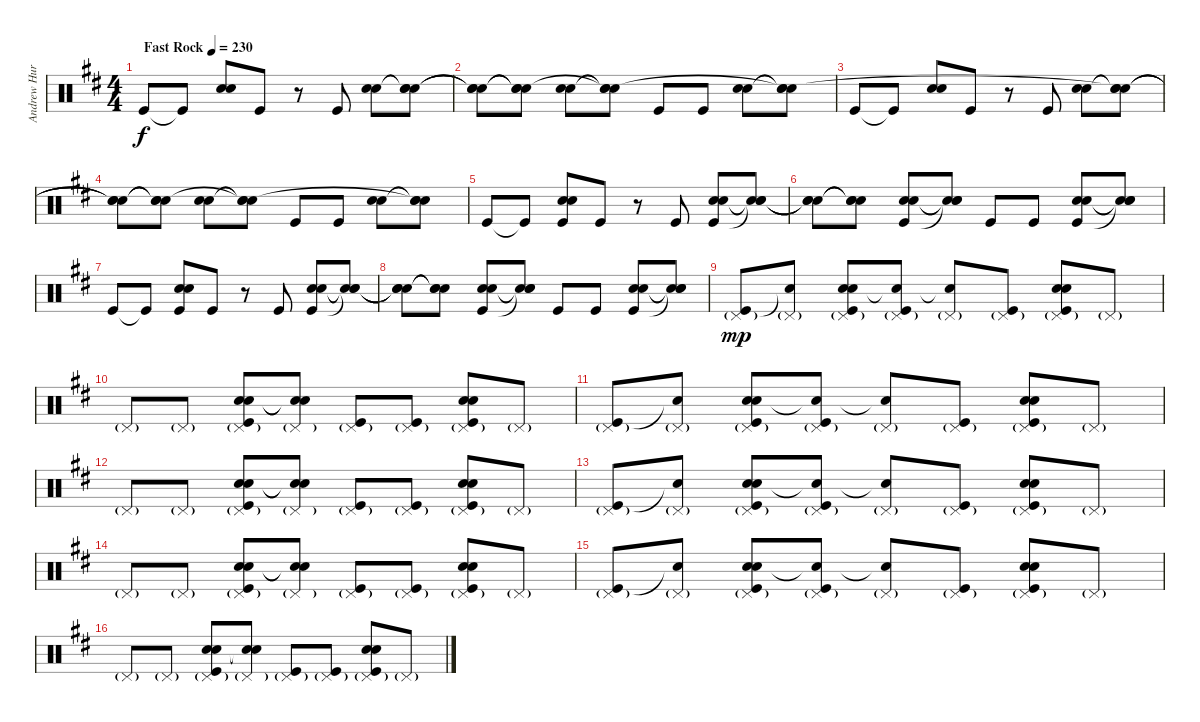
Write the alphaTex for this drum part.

\track ("Andrew Hurley" "Andrew Hur") {instrument percussion}
\staff {score}
\articulation defaults
\ts (4 4)
\tempo (230 "Fast Rock")
\clef neutral
\ks d "Kick (hit)".8{dy f} "Kick (hit)"{t}.8
("Snare (hit) 2" "Electric Snare (hit)").8 "Kick (hit)".8 r.8 "Kick (hit)".8 ("Electric Snare (hit)" "Snare (hit) 2").8 ("Snare (hit)"{t} "Snare (hit)"{t} "Snare (hit)").8 |
("Snare (hit)"{t} "Snare (hit)"{t} "Snare (hit)"{t}).8 ("Snare (hit)"{t} "Snare (hit)"{t} "Snare (hit)"{t}).8 ("Electric Snare (hit)" "Snare (hit) 2").8 ("Snare (hit)"{t} "Snare (hit)"{t} "Snare (hit)"{t}).8 "Kick (hit)".8 "Kick (hit)".8 ("Electric Snare (hit)" "Snare (hit) 2").8 ("Snare (hit)"{t} "Snare (hit)"{t} "Snare (hit)"{t}).8 |
"Kick (hit)".8 "Kick (hit)"{t}.8 ("Snare (hit) 2" "Electric Snare (hit)").8 "Kick (hit)".8 r.8 "Kick (hit)".8 ("Electric Snare (hit)" "Snare (hit) 2").8 ("Snare (hit)"{t} "Snare (hit)"{t} "Snare (hit)"{t}).8 |
("Snare (hit)"{t} "Snare (hit)"{t} "Snare (hit)"{t}).8 ("Snare (hit)"{t} "Snare (hit)"{t} "Snare (hit)"{t}).8 ("Electric Snare (hit)" "Snare (hit) 2").8 ("Snare (hit)"{t} "Snare (hit)"{t} "Snare (hit)"{t}).8 "Kick (hit)".8 "Kick (hit)".8 ("Electric Snare (hit)" "Snare (hit) 2").8 ("Snare (hit)"{t} "Snare (hit)"{t} "Snare (hit)"{t}).8 |
"Kick (hit)".8 "Kick (hit)"{t}.8 ("Kick (hit)" "Snare (hit) 2" "Electric Snare (hit)").8 "Kick (hit)".8 r.8 "Kick (hit)".8 ("Electric Snare (hit)" "Snare (hit) 2" "Kick (hit)").8 ("Snare (hit)"{t} "Snare (hit)"{t} "Snare (hit)"{t}).8 |
("Snare (hit)"{t} "Snare (hit)"{t} "Snare (hit)"{t}).8 ("Snare (hit)"{t} "Snare (hit)"{t} "Snare (hit)"{t}).8 ("Electric Snare (hit)" "Snare (hit) 2" "Kick (hit)").8 ("Snare (hit)"{t} "Snare (hit)"{t} "Snare (hit)"{t}).8 "Kick (hit)".8 "Kick (hit)".8 ("Electric Snare (hit)" "Snare (hit) 2" "Kick (hit)").8 ("Snare (hit)"{t} "Snare (hit)"{t} "Snare (hit)"{t}).8 |
"Kick (hit)".8 "Kick (hit)"{t}.8 ("Kick (hit)" "Snare (hit) 2" "Electric Snare (hit)").8 "Kick (hit)".8 r.8 "Kick (hit)".8 ("Electric Snare (hit)" "Snare (hit) 2" "Kick (hit)").8 ("Snare (hit)"{t} "Snare (hit)"{t} "Snare (hit)"{t}).8 |
("Snare (hit)"{t} "Snare (hit)"{t} "Snare (hit)"{t}).8 ("Snare (hit)"{t} "Snare (hit)"{t} "Snare (hit)"{t}).8 ("Electric Snare (hit)" "Snare (hit) 2" "Kick (hit)").8 ("Snare (hit)"{t} "Snare (hit)"{t} "Snare (hit)"{t}).8 "Kick (hit)".8 "Kick (hit)".8 ("Electric Snare (hit)" "Snare (hit) 2" "Kick (hit)").8 ("Snare (hit)"{t} "Snare (hit)"{t} "Snare (hit)"{t}).8 |
("Pedal Hi-Hat (hit)"{g} "Kick (hit)").8{dy mp} ("Pedal Hi-Hat (hit)"{g} "Snare (hit)"{t}).8 ("Pedal Hi-Hat (hit)"{g} "Snare (hit) 2" "Electric Snare (hit)" "Kick (hit)").8 ("Pedal Hi-Hat (hit)"{g} "Snare (hit)"{t} "Kick (hit)").8 ("Pedal Hi-Hat (hit)"{g} "Snare (hit)"{t}).8 ("Pedal Hi-Hat (hit)"{g} "Kick (hit)").8 ("Pedal Hi-Hat (hit)"{g} "Snare (hit) 2" "Electric Snare (hit)" "Kick (hit)").8 "Pedal Hi-Hat (hit)"{g}.8 |
"Pedal Hi-Hat (hit)"{g}.8 "Pedal Hi-Hat (hit)"{g}.8 ("Pedal Hi-Hat (hit)"{g} "Snare (hit) 2" "Electric Snare (hit)" "Kick (hit)").8 ("Pedal Hi-Hat (hit)"{g} "Snare (hit)"{t} "Snare (hit)"{t}).8 ("Pedal Hi-Hat (hit)"{g} "Kick (hit)").8 ("Pedal Hi-Hat (hit)"{g} "Kick (hit)").8 ("Pedal Hi-Hat (hit)"{g} "Snare (hit) 2" "Electric Snare (hit)" "Kick (hit)").8 "Pedal Hi-Hat (hit)"{g}.8 |
("Pedal Hi-Hat (hit)"{g} "Kick (hit)").8 ("Pedal Hi-Hat (hit)"{g} "Snare (hit)"{t}).8 ("Pedal Hi-Hat (hit)"{g} "Snare (hit) 2" "Electric Snare (hit)" "Kick (hit)").8 ("Pedal Hi-Hat (hit)"{g} "Snare (hit)"{t} "Kick (hit)").8 ("Pedal Hi-Hat (hit)"{g} "Snare (hit)"{t}).8 ("Pedal Hi-Hat (hit)"{g} "Kick (hit)").8 ("Pedal Hi-Hat (hit)"{g} "Snare (hit) 2" "Electric Snare (hit)" "Kick (hit)").8 "Pedal Hi-Hat (hit)"{g}.8 |
"Pedal Hi-Hat (hit)"{g}.8 "Pedal Hi-Hat (hit)"{g}.8 ("Pedal Hi-Hat (hit)"{g} "Snare (hit) 2" "Electric Snare (hit)" "Kick (hit)").8 ("Pedal Hi-Hat (hit)"{g} "Snare (hit)"{t} "Snare (hit)"{t}).8 ("Pedal Hi-Hat (hit)"{g} "Kick (hit)").8 ("Pedal Hi-Hat (hit)"{g} "Kick (hit)").8 ("Pedal Hi-Hat (hit)"{g} "Snare (hit) 2" "Electric Snare (hit)" "Kick (hit)").8 "Pedal Hi-Hat (hit)"{g}.8 |
("Pedal Hi-Hat (hit)"{g} "Kick (hit)").8 ("Pedal Hi-Hat (hit)"{g} "Snare (hit)"{t}).8 ("Pedal Hi-Hat (hit)"{g} "Snare (hit) 2" "Electric Snare (hit)" "Kick (hit)").8 ("Pedal Hi-Hat (hit)"{g} "Snare (hit)"{t} "Kick (hit)").8 ("Pedal Hi-Hat (hit)"{g} "Snare (hit)"{t}).8 ("Pedal Hi-Hat (hit)"{g} "Kick (hit)").8 ("Pedal Hi-Hat (hit)"{g} "Snare (hit) 2" "Electric Snare (hit)" "Kick (hit)").8 "Pedal Hi-Hat (hit)"{g}.8 |
"Pedal Hi-Hat (hit)"{g}.8 "Pedal Hi-Hat (hit)"{g}.8 ("Pedal Hi-Hat (hit)"{g} "Snare (hit) 2" "Electric Snare (hit)" "Kick (hit)").8 ("Pedal Hi-Hat (hit)"{g} "Snare (hit)"{t} "Snare (hit)"{t}).8 ("Pedal Hi-Hat (hit)"{g} "Kick (hit)").8 ("Pedal Hi-Hat (hit)"{g} "Kick (hit)").8 ("Pedal Hi-Hat (hit)"{g} "Snare (hit) 2" "Electric Snare (hit)" "Kick (hit)").8 "Pedal Hi-Hat (hit)"{g}.8 |
("Pedal Hi-Hat (hit)"{g} "Kick (hit)").8 ("Pedal Hi-Hat (hit)"{g} "Snare (hit)"{t}).8 ("Pedal Hi-Hat (hit)"{g} "Snare (hit) 2" "Electric Snare (hit)" "Kick (hit)").8 ("Pedal Hi-Hat (hit)"{g} "Snare (hit)"{t} "Kick (hit)").8 ("Pedal Hi-Hat (hit)"{g} "Snare (hit)"{t}).8 ("Pedal Hi-Hat (hit)"{g} "Kick (hit)").8 ("Pedal Hi-Hat (hit)"{g} "Snare (hit) 2" "Electric Snare (hit)" "Kick (hit)").8 "Pedal Hi-Hat (hit)"{g}.8 |
"Pedal Hi-Hat (hit)"{g}.8 "Pedal Hi-Hat (hit)"{g}.8 ("Pedal Hi-Hat (hit)"{g} "Snare (hit) 2" "Electric Snare (hit)" "Kick (hit)").8 ("Pedal Hi-Hat (hit)"{g} "Snare (hit)"{t} "Snare (hit)"{t}).8 ("Pedal Hi-Hat (hit)"{g} "Kick (hit)").8 ("Pedal Hi-Hat (hit)"{g} "Kick (hit)").8 ("Pedal Hi-Hat (hit)"{g} "Snare (hit) 2" "Electric Snare (hit)" "Kick (hit)").8 "Pedal Hi-Hat (hit)"{g}.8
